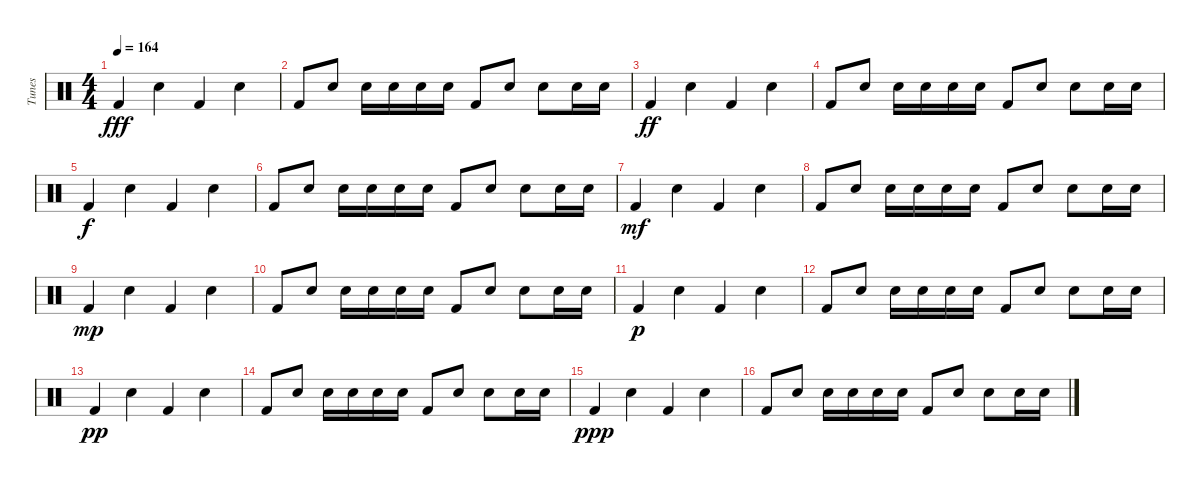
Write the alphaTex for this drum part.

\track ("Tunes" "Tunes") {instrument percussion}
\staff {score}
\articulation defaults
\ts (4 4)
\tempo 164
\clef neutral
\ks c "Kick (hit) 2".4{dy fff} "Electric Snare (hit)".4 "Kick (hit) 2".4 "Electric Snare (hit)".4
|
"Kick (hit) 2".8 "Electric Snare (hit)".8 "Electric Snare (hit)".16 "Electric Snare (hit)".16 "Electric Snare (hit)".16 "Electric Snare (hit)".16 "Kick (hit) 2".8 "Electric Snare (hit)".8 "Electric Snare (hit)".8 "Electric Snare (hit)".16 "Electric Snare (hit)".16 |
"Kick (hit) 2".4{dy ff} "Electric Snare (hit)".4 "Kick (hit) 2".4 "Electric Snare (hit)".4 |
"Kick (hit) 2".8 "Electric Snare (hit)".8 "Electric Snare (hit)".16 "Electric Snare (hit)".16 "Electric Snare (hit)".16 "Electric Snare (hit)".16 "Kick (hit) 2".8 "Electric Snare (hit)".8 "Electric Snare (hit)".8 "Electric Snare (hit)".16 "Electric Snare (hit)".16 |
"Kick (hit) 2".4{dy f} "Electric Snare (hit)".4 "Kick (hit) 2".4 "Electric Snare (hit)".4 |
"Kick (hit) 2".8 "Electric Snare (hit)".8 "Electric Snare (hit)".16 "Electric Snare (hit)".16 "Electric Snare (hit)".16 "Electric Snare (hit)".16 "Kick (hit) 2".8 "Electric Snare (hit)".8 "Electric Snare (hit)".8 "Electric Snare (hit)".16 "Electric Snare (hit)".16 |
"Kick (hit) 2".4{dy mf} "Electric Snare (hit)".4 "Kick (hit) 2".4 "Electric Snare (hit)".4 |
"Kick (hit) 2".8 "Electric Snare (hit)".8 "Electric Snare (hit)".16 "Electric Snare (hit)".16 "Electric Snare (hit)".16 "Electric Snare (hit)".16 "Kick (hit) 2".8 "Electric Snare (hit)".8 "Electric Snare (hit)".8 "Electric Snare (hit)".16 "Electric Snare (hit)".16 |
"Kick (hit) 2".4{dy mp} "Electric Snare (hit)".4 "Kick (hit) 2".4 "Electric Snare (hit)".4 |
"Kick (hit) 2".8 "Electric Snare (hit)".8 "Electric Snare (hit)".16 "Electric Snare (hit)".16 "Electric Snare (hit)".16 "Electric Snare (hit)".16 "Kick (hit) 2".8 "Electric Snare (hit)".8 "Electric Snare (hit)".8 "Electric Snare (hit)".16 "Electric Snare (hit)".16 |
"Kick (hit) 2".4{dy p} "Electric Snare (hit)".4 "Kick (hit) 2".4 "Electric Snare (hit)".4 |
"Kick (hit) 2".8 "Electric Snare (hit)".8 "Electric Snare (hit)".16 "Electric Snare (hit)".16 "Electric Snare (hit)".16 "Electric Snare (hit)".16 "Kick (hit) 2".8 "Electric Snare (hit)".8 "Electric Snare (hit)".8 "Electric Snare (hit)".16 "Electric Snare (hit)".16 |
"Kick (hit) 2".4{dy pp} "Electric Snare (hit)".4 "Kick (hit) 2".4 "Electric Snare (hit)".4 |
"Kick (hit) 2".8 "Electric Snare (hit)".8 "Electric Snare (hit)".16 "Electric Snare (hit)".16 "Electric Snare (hit)".16 "Electric Snare (hit)".16 "Kick (hit) 2".8 "Electric Snare (hit)".8 "Electric Snare (hit)".8 "Electric Snare (hit)".16 "Electric Snare (hit)".16 |
"Kick (hit) 2".4{dy ppp} "Electric Snare (hit)".4 "Kick (hit) 2".4 "Electric Snare (hit)".4 |
"Kick (hit) 2".8 "Electric Snare (hit)".8 "Electric Snare (hit)".16 "Electric Snare (hit)".16 "Electric Snare (hit)".16 "Electric Snare (hit)".16 "Kick (hit) 2".8 "Electric Snare (hit)".8 "Electric Snare (hit)".8 "Electric Snare (hit)".16 "Electric Snare (hit)".16
